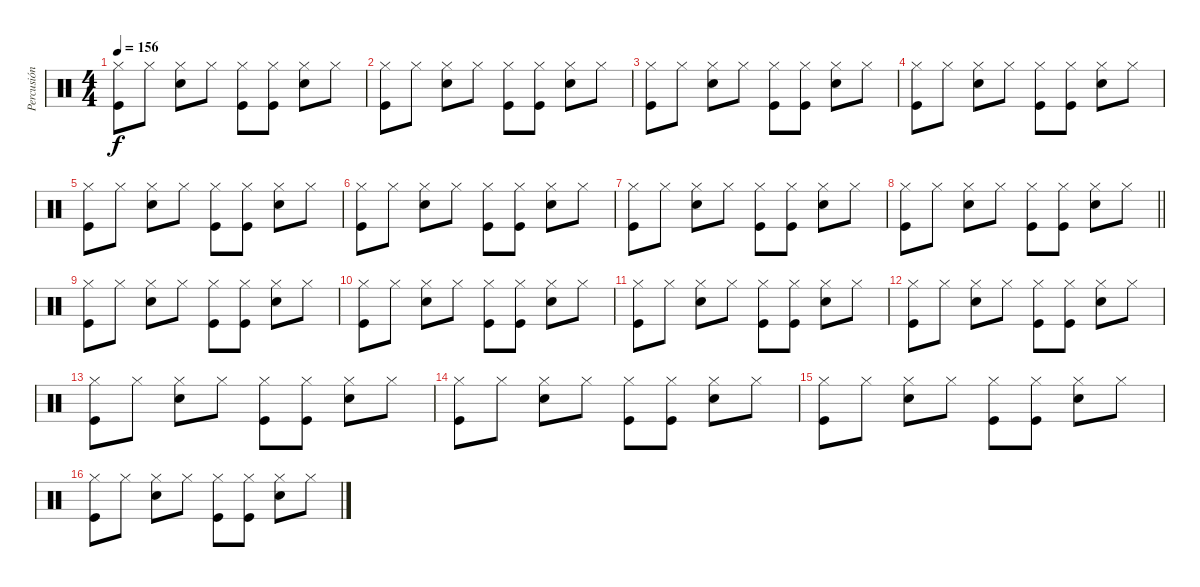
\track ("Percusión" "Percusión") {instrument percussion}
\staff {score}
\articulation defaults
\ts (4 4)
\tempo 156
\clef neutral
\ks c
("Hi-Hat (closed)" "Kick (hit)").8{dy f} "Hi-Hat (closed)".8 ("Hi-Hat (closed)" "Electric Snare (hit)").8 "Hi-Hat (closed)".8 ("Hi-Hat (closed)" "Kick (hit)").8 ("Hi-Hat (closed)" "Kick (hit)").8 ("Hi-Hat (closed)" "Electric Snare (hit)").8 "Hi-Hat (closed)".8 |
("Hi-Hat (closed)" "Kick (hit)").8 "Hi-Hat (closed)".8 ("Hi-Hat (closed)" "Electric Snare (hit)").8 "Hi-Hat (closed)".8 ("Hi-Hat (closed)" "Kick (hit)").8 ("Hi-Hat (closed)" "Kick (hit)").8 ("Hi-Hat (closed)" "Electric Snare (hit)").8 "Hi-Hat (closed)".8 |
("Hi-Hat (closed)" "Kick (hit)").8 "Hi-Hat (closed)".8 ("Hi-Hat (closed)" "Electric Snare (hit)").8 "Hi-Hat (closed)".8 ("Hi-Hat (closed)" "Kick (hit)").8 ("Hi-Hat (closed)" "Kick (hit)").8 ("Hi-Hat (closed)" "Electric Snare (hit)").8 "Hi-Hat (closed)".8 |
("Hi-Hat (closed)" "Kick (hit)").8 "Hi-Hat (closed)".8 ("Hi-Hat (closed)" "Electric Snare (hit)").8 "Hi-Hat (closed)".8 ("Hi-Hat (closed)" "Kick (hit)").8 ("Hi-Hat (closed)" "Kick (hit)").8 ("Hi-Hat (closed)" "Electric Snare (hit)").8 "Hi-Hat (closed)".8 |
("Hi-Hat (closed)" "Kick (hit)").8 "Hi-Hat (closed)".8 ("Hi-Hat (closed)" "Electric Snare (hit)").8 "Hi-Hat (closed)".8 ("Hi-Hat (closed)" "Kick (hit)").8 ("Hi-Hat (closed)" "Kick (hit)").8 ("Hi-Hat (closed)" "Electric Snare (hit)").8 "Hi-Hat (closed)".8 |
("Hi-Hat (closed)" "Kick (hit)").8 "Hi-Hat (closed)".8 ("Hi-Hat (closed)" "Electric Snare (hit)").8 "Hi-Hat (closed)".8 ("Hi-Hat (closed)" "Kick (hit)").8 ("Hi-Hat (closed)" "Kick (hit)").8 ("Hi-Hat (closed)" "Electric Snare (hit)").8 "Hi-Hat (closed)".8 |
("Hi-Hat (closed)" "Kick (hit)").8 "Hi-Hat (closed)".8 ("Hi-Hat (closed)" "Electric Snare (hit)").8 "Hi-Hat (closed)".8 ("Hi-Hat (closed)" "Kick (hit)").8 ("Hi-Hat (closed)" "Kick (hit)").8 ("Hi-Hat (closed)" "Electric Snare (hit)").8 "Hi-Hat (closed)".8 |
\barLineRight lightlight
("Hi-Hat (closed)" "Kick (hit)").8 "Hi-Hat (closed)".8 ("Hi-Hat (closed)" "Electric Snare (hit)").8 "Hi-Hat (closed)".8 ("Hi-Hat (closed)" "Kick (hit)").8 ("Hi-Hat (closed)" "Kick (hit)").8 ("Hi-Hat (closed)" "Electric Snare (hit)").8 "Hi-Hat (closed)".8 |
("Hi-Hat (closed)" "Kick (hit)").8 "Hi-Hat (closed)".8 ("Hi-Hat (closed)" "Electric Snare (hit)").8 "Hi-Hat (closed)".8 ("Hi-Hat (closed)" "Kick (hit)").8 ("Hi-Hat (closed)" "Kick (hit)").8 ("Hi-Hat (closed)" "Electric Snare (hit)").8 "Hi-Hat (closed)".8 |
("Hi-Hat (closed)" "Kick (hit)").8 "Hi-Hat (closed)".8 ("Hi-Hat (closed)" "Electric Snare (hit)").8 "Hi-Hat (closed)".8 ("Hi-Hat (closed)" "Kick (hit)").8 ("Hi-Hat (closed)" "Kick (hit)").8 ("Hi-Hat (closed)" "Electric Snare (hit)").8 "Hi-Hat (closed)".8 |
("Hi-Hat (closed)" "Kick (hit)").8 "Hi-Hat (closed)".8 ("Hi-Hat (closed)" "Electric Snare (hit)").8 "Hi-Hat (closed)".8 ("Hi-Hat (closed)" "Kick (hit)").8 ("Hi-Hat (closed)" "Kick (hit)").8 ("Hi-Hat (closed)" "Electric Snare (hit)").8 "Hi-Hat (closed)".8 |
("Hi-Hat (closed)" "Kick (hit)").8 "Hi-Hat (closed)".8 ("Hi-Hat (closed)" "Electric Snare (hit)").8 "Hi-Hat (closed)".8 ("Hi-Hat (closed)" "Kick (hit)").8 ("Hi-Hat (closed)" "Kick (hit)").8 ("Hi-Hat (closed)" "Electric Snare (hit)").8 "Hi-Hat (closed)".8 |
("Hi-Hat (closed)" "Kick (hit)").8 "Hi-Hat (closed)".8 ("Hi-Hat (closed)" "Electric Snare (hit)").8 "Hi-Hat (closed)".8 ("Hi-Hat (closed)" "Kick (hit)").8 ("Hi-Hat (closed)" "Kick (hit)").8 ("Hi-Hat (closed)" "Electric Snare (hit)").8 "Hi-Hat (closed)".8 |
("Hi-Hat (closed)" "Kick (hit)").8 "Hi-Hat (closed)".8 ("Hi-Hat (closed)" "Electric Snare (hit)").8 "Hi-Hat (closed)".8 ("Hi-Hat (closed)" "Kick (hit)").8 ("Hi-Hat (closed)" "Kick (hit)").8 ("Hi-Hat (closed)" "Electric Snare (hit)").8 "Hi-Hat (closed)".8 |
("Hi-Hat (closed)" "Kick (hit)").8 "Hi-Hat (closed)".8 ("Hi-Hat (closed)" "Electric Snare (hit)").8 "Hi-Hat (closed)".8 ("Hi-Hat (closed)" "Kick (hit)").8 ("Hi-Hat (closed)" "Kick (hit)").8 ("Hi-Hat (closed)" "Electric Snare (hit)").8 "Hi-Hat (closed)".8 |
("Hi-Hat (closed)" "Kick (hit)").8 "Hi-Hat (closed)".8 ("Hi-Hat (closed)" "Electric Snare (hit)").8 "Hi-Hat (closed)".8 ("Hi-Hat (closed)" "Kick (hit)").8 ("Hi-Hat (closed)" "Kick (hit)").8 ("Hi-Hat (closed)" "Electric Snare (hit)").8 "Hi-Hat (closed)".8
